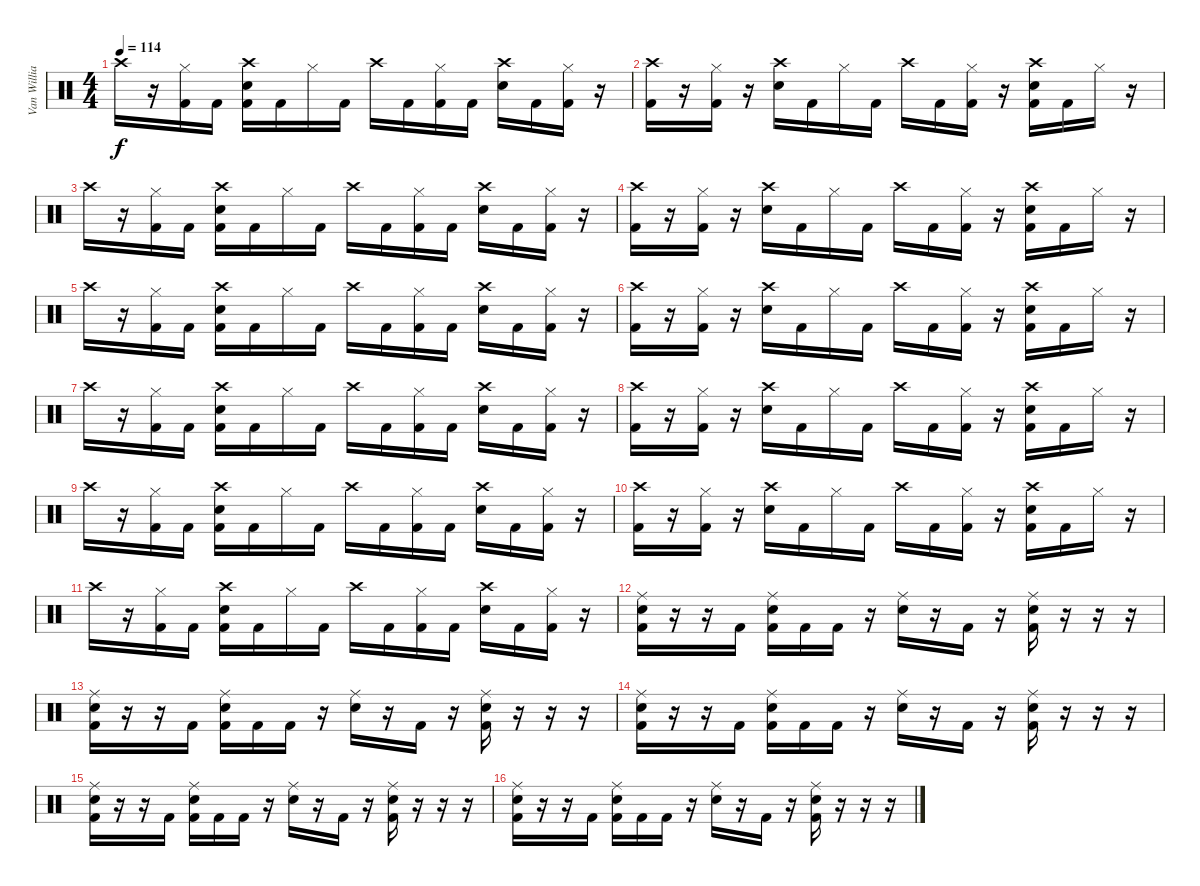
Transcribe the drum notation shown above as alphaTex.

\track ("Van Williams (Drums)" "Van Willia") {instrument percussion}
\staff {score}
\articulation defaults
\ts (4 4)
\tempo 114
\clef neutral
\ks c "Crash high (hit)".16{dy f}
r.16 ("Hi-Hat (closed)" "Kick (hit) 2").16 "Kick (hit) 2".16 ("Snare (hit) 2" "Crash high (hit)" "Kick (hit) 2").16 "Kick (hit) 2".16 "Hi-Hat (closed)".16 "Kick (hit) 2".16 "Crash high (hit)".16 "Kick (hit) 2".16 ("Hi-Hat (closed)" "Kick (hit) 2").16 "Kick (hit) 2".16 ("Snare (hit) 2" "Crash high (hit)").16 "Kick (hit) 2".16 ("Hi-Hat (closed)" "Kick (hit) 2").16 r.16 |
("Crash high (hit)" "Kick (hit) 2").16 r.16 ("Hi-Hat (closed)" "Kick (hit) 2").16 r.16 ("Snare (hit) 2" "Crash high (hit)").16 "Kick (hit) 2".16 "Hi-Hat (closed)".16 "Kick (hit) 2".16 "Crash high (hit)".16 "Kick (hit) 2".16 ("Hi-Hat (closed)" "Kick (hit) 2").16 r.16 ("Snare (hit) 2" "Crash high (hit)" "Kick (hit) 2").16 "Kick (hit) 2".16 "Hi-Hat (closed)".16 r.16 |
"Crash high (hit)".16 r.16 ("Hi-Hat (closed)" "Kick (hit) 2").16 "Kick (hit) 2".16 ("Snare (hit) 2" "Crash high (hit)" "Kick (hit) 2").16 "Kick (hit) 2".16 "Hi-Hat (closed)".16 "Kick (hit) 2".16 "Crash high (hit)".16 "Kick (hit) 2".16 ("Hi-Hat (closed)" "Kick (hit) 2").16 "Kick (hit) 2".16 ("Snare (hit) 2" "Crash high (hit)").16 "Kick (hit) 2".16 ("Hi-Hat (closed)" "Kick (hit) 2").16 r.16 |
("Crash high (hit)" "Kick (hit) 2").16 r.16 ("Hi-Hat (closed)" "Kick (hit) 2").16 r.16 ("Snare (hit) 2" "Crash high (hit)").16 "Kick (hit) 2".16 "Hi-Hat (closed)".16 "Kick (hit) 2".16 "Crash high (hit)".16 "Kick (hit) 2".16 ("Hi-Hat (closed)" "Kick (hit) 2").16 r.16 ("Snare (hit) 2" "Crash high (hit)" "Kick (hit) 2").16 "Kick (hit) 2".16 "Hi-Hat (closed)".16 r.16 |
"Crash high (hit)".16 r.16 ("Hi-Hat (closed)" "Kick (hit) 2").16 "Kick (hit) 2".16 ("Snare (hit) 2" "Crash high (hit)" "Kick (hit) 2").16 "Kick (hit) 2".16 "Hi-Hat (closed)".16 "Kick (hit) 2".16 "Crash high (hit)".16 "Kick (hit) 2".16 ("Hi-Hat (closed)" "Kick (hit) 2").16 "Kick (hit) 2".16 ("Snare (hit) 2" "Crash high (hit)").16 "Kick (hit) 2".16 ("Hi-Hat (closed)" "Kick (hit) 2").16 r.16 |
("Crash high (hit)" "Kick (hit) 2").16 r.16 ("Hi-Hat (closed)" "Kick (hit) 2").16 r.16 ("Snare (hit) 2" "Crash high (hit)").16 "Kick (hit) 2".16 "Hi-Hat (closed)".16 "Kick (hit) 2".16 "Crash high (hit)".16 "Kick (hit) 2".16 ("Hi-Hat (closed)" "Kick (hit) 2").16 r.16 ("Snare (hit) 2" "Crash high (hit)" "Kick (hit) 2").16 "Kick (hit) 2".16 "Hi-Hat (closed)".16 r.16 |
"Crash high (hit)".16 r.16 ("Hi-Hat (closed)" "Kick (hit) 2").16 "Kick (hit) 2".16 ("Snare (hit) 2" "Crash high (hit)" "Kick (hit) 2").16 "Kick (hit) 2".16 "Hi-Hat (closed)".16 "Kick (hit) 2".16 "Crash high (hit)".16 "Kick (hit) 2".16 ("Hi-Hat (closed)" "Kick (hit) 2").16 "Kick (hit) 2".16 ("Snare (hit) 2" "Crash high (hit)").16 "Kick (hit) 2".16 ("Hi-Hat (closed)" "Kick (hit) 2").16 r.16 |
("Crash high (hit)" "Kick (hit) 2").16 r.16 ("Hi-Hat (closed)" "Kick (hit) 2").16 r.16 ("Snare (hit) 2" "Crash high (hit)").16 "Kick (hit) 2".16 "Hi-Hat (closed)".16 "Kick (hit) 2".16 "Crash high (hit)".16 "Kick (hit) 2".16 ("Hi-Hat (closed)" "Kick (hit) 2").16 r.16 ("Snare (hit) 2" "Crash high (hit)" "Kick (hit) 2").16 "Kick (hit) 2".16 "Hi-Hat (closed)".16 r.16 |
"Crash high (hit)".16 r.16 ("Hi-Hat (closed)" "Kick (hit) 2").16 "Kick (hit) 2".16 ("Snare (hit) 2" "Crash high (hit)" "Kick (hit) 2").16 "Kick (hit) 2".16 "Hi-Hat (closed)".16 "Kick (hit) 2".16 "Crash high (hit)".16 "Kick (hit) 2".16 ("Hi-Hat (closed)" "Kick (hit) 2").16 "Kick (hit) 2".16 ("Snare (hit) 2" "Crash high (hit)").16 "Kick (hit) 2".16 ("Hi-Hat (closed)" "Kick (hit) 2").16 r.16 |
("Crash high (hit)" "Kick (hit) 2").16 r.16 ("Hi-Hat (closed)" "Kick (hit) 2").16 r.16 ("Snare (hit) 2" "Crash high (hit)").16 "Kick (hit) 2".16 "Hi-Hat (closed)".16 "Kick (hit) 2".16 "Crash high (hit)".16 "Kick (hit) 2".16 ("Hi-Hat (closed)" "Kick (hit) 2").16 r.16 ("Snare (hit) 2" "Crash high (hit)" "Kick (hit) 2").16 "Kick (hit) 2".16 "Hi-Hat (closed)".16 r.16 |
"Crash high (hit)".16 r.16 ("Hi-Hat (closed)" "Kick (hit) 2").16 "Kick (hit) 2".16 ("Snare (hit) 2" "Crash high (hit)" "Kick (hit) 2").16 "Kick (hit) 2".16 "Hi-Hat (closed)".16 "Kick (hit) 2".16 "Crash high (hit)".16 "Kick (hit) 2".16 ("Hi-Hat (closed)" "Kick (hit) 2").16 "Kick (hit) 2".16 ("Snare (hit) 2" "Crash high (hit)").16 "Kick (hit) 2".16 ("Hi-Hat (closed)" "Kick (hit) 2").16 r.16 |
("Ride (middle)" "Snare (hit) 2" "Kick (hit) 2").16 r.16 r.16 "Kick (hit) 2".16 ("Ride (middle)" "Snare (hit) 2" "Kick (hit) 2").16 "Kick (hit) 2".16 "Kick (hit) 2".16 r.16 ("Ride (middle)" "Snare (hit) 2").16 r.16 "Kick (hit) 2".16 r.16 ("Ride (middle)" "Snare (hit) 2" "Kick (hit) 2").16 r.16 r.16 r.16 |
("Ride (middle)" "Snare (hit) 2" "Kick (hit) 2").16 r.16 r.16 "Kick (hit) 2".16 ("Ride (middle)" "Snare (hit) 2" "Kick (hit) 2").16 "Kick (hit) 2".16 "Kick (hit) 2".16 r.16 ("Ride (middle)" "Snare (hit) 2").16 r.16 "Kick (hit) 2".16 r.16 ("Ride (middle)" "Snare (hit) 2" "Kick (hit) 2").16 r.16 r.16 r.16 |
("Ride (middle)" "Snare (hit) 2" "Kick (hit) 2").16 r.16 r.16 "Kick (hit) 2".16 ("Ride (middle)" "Snare (hit) 2" "Kick (hit) 2").16 "Kick (hit) 2".16 "Kick (hit) 2".16 r.16 ("Ride (middle)" "Snare (hit) 2").16 r.16 "Kick (hit) 2".16 r.16 ("Ride (middle)" "Snare (hit) 2" "Kick (hit) 2").16 r.16 r.16 r.16 |
("Ride (middle)" "Snare (hit) 2" "Kick (hit) 2").16 r.16 r.16 "Kick (hit) 2".16 ("Ride (middle)" "Snare (hit) 2" "Kick (hit) 2").16 "Kick (hit) 2".16 "Kick (hit) 2".16 r.16 ("Ride (middle)" "Snare (hit) 2").16 r.16 "Kick (hit) 2".16 r.16 ("Ride (middle)" "Snare (hit) 2" "Kick (hit) 2").16 r.16 r.16 r.16 |
("Ride (middle)" "Snare (hit) 2" "Kick (hit) 2").16 r.16 r.16 "Kick (hit) 2".16 ("Ride (middle)" "Snare (hit) 2" "Kick (hit) 2").16 "Kick (hit) 2".16 "Kick (hit) 2".16 r.16 ("Ride (middle)" "Snare (hit) 2").16 r.16 "Kick (hit) 2".16 r.16 ("Ride (middle)" "Snare (hit) 2" "Kick (hit) 2").16 r.16 r.16 r.16
